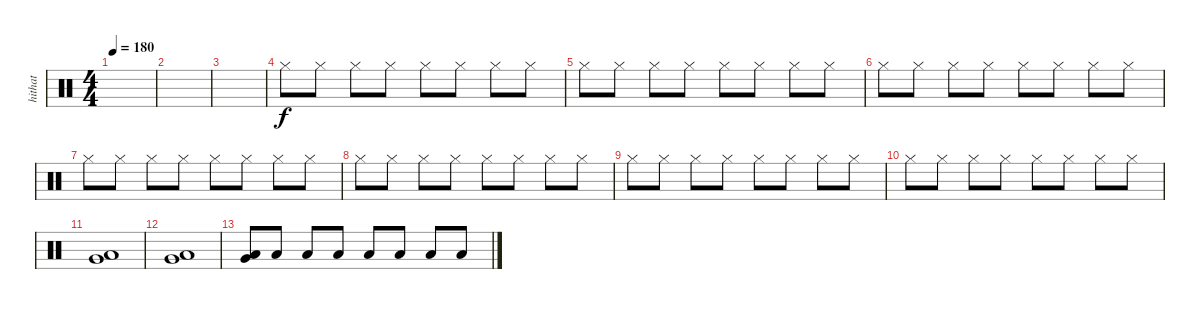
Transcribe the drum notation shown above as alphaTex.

\track ("hithat" "hithat") {instrument percussion}
\staff {score}
\articulation defaults
\ts (4 4)
\tempo 180
\clef neutral
\ks c
|
|
|
"Hi-Hat (closed)".8 "Hi-Hat (closed)".8 "Hi-Hat (closed)".8 "Hi-Hat (closed)".8 "Hi-Hat (closed)".8 "Hi-Hat (closed)".8 "Hi-Hat (closed)".8 "Hi-Hat (closed)".8 |
"Hi-Hat (closed)".8 "Hi-Hat (closed)".8 "Hi-Hat (closed)".8 "Hi-Hat (closed)".8 "Hi-Hat (closed)".8 "Hi-Hat (closed)".8 "Hi-Hat (closed)".8 "Hi-Hat (closed)".8 |
"Hi-Hat (closed)".8 "Hi-Hat (closed)".8 "Hi-Hat (closed)".8 "Hi-Hat (closed)".8 "Hi-Hat (closed)".8 "Hi-Hat (closed)".8 "Hi-Hat (closed)".8 "Hi-Hat (closed)".8 |
"Hi-Hat (closed)".8 "Hi-Hat (closed)".8 "Hi-Hat (closed)".8 "Hi-Hat (closed)".8 "Hi-Hat (closed)".8 "Hi-Hat (closed)".8 "Hi-Hat (closed)".8 "Hi-Hat (closed)".8 |
"Hi-Hat (closed)".8 "Hi-Hat (closed)".8 "Hi-Hat (closed)".8 "Hi-Hat (closed)".8 "Hi-Hat (closed)".8 "Hi-Hat (closed)".8 "Hi-Hat (closed)".8 "Hi-Hat (closed)".8 |
"Hi-Hat (closed)".8 "Hi-Hat (closed)".8 "Hi-Hat (closed)".8 "Hi-Hat (closed)".8 "Hi-Hat (closed)".8 "Hi-Hat (closed)".8 "Hi-Hat (closed)".8 "Hi-Hat (closed)".8 |
"Hi-Hat (closed)".8 "Hi-Hat (closed)".8 "Hi-Hat (closed)".8 "Hi-Hat (closed)".8 "Hi-Hat (closed)".8 "Hi-Hat (closed)".8 "Hi-Hat (closed)".8 "Hi-Hat (closed)".8 |
("Low Tom (hit)" "Very Low Tom (hit)").1 |
("Low Tom (hit)" "Very Low Tom (hit)").1 |
("Low Tom (hit)" "Very Low Tom (hit)").8 "Low Tom (hit)".8 "Low Tom (hit)".8 "Low Tom (hit)".8 "Low Tom (hit)".8 "Low Tom (hit)".8 "Low Tom (hit)".8 "Low Tom (hit)".8
